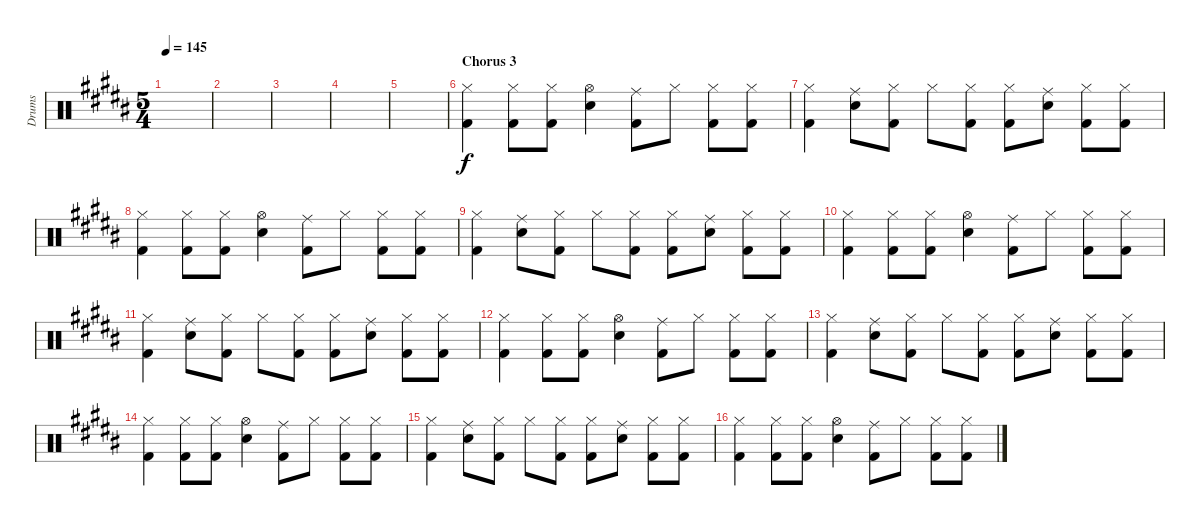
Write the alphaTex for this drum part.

\track ("Drums" "Drums") {instrument percussion}
\staff {score}
\articulation defaults
\ts (5 4)
\tempo 145
\clef neutral
\ks b
|
|
|
|
|
\section ("" "Chorus 3")
("Hi-Hat (closed)" "Kick (hit) 2").4{volume 12 balance 0} ("Hi-Hat (closed)" "Kick (hit) 2").8 ("Hi-Hat (closed)" "Kick (hit) 2").8 ("Hi-Hat (open)" "Electric Snare (hit)").4 ("Ride (middle)" "Kick (hit) 2").8 "Hi-Hat (closed)".8 ("Hi-Hat (closed)" "Kick (hit) 2").8 ("Hi-Hat (closed)" "Kick (hit) 2").8 |
("Hi-Hat (closed)" "Kick (hit) 2").4 ("Ride (middle)" "Electric Snare (hit)").8 ("Hi-Hat (closed)" "Kick (hit) 2").8 "Hi-Hat (closed)".8 ("Hi-Hat (closed)" "Kick (hit) 2").8 ("Hi-Hat (closed)" "Kick (hit) 2").8 ("Ride (middle)" "Electric Snare (hit)").8 ("Hi-Hat (closed)" "Kick (hit) 2").8 ("Hi-Hat (closed)" "Kick (hit) 2").8 |
("Hi-Hat (closed)" "Kick (hit) 2").4 ("Hi-Hat (closed)" "Kick (hit) 2").8 ("Hi-Hat (closed)" "Kick (hit) 2").8 ("Hi-Hat (open)" "Electric Snare (hit)").4 ("Ride (middle)" "Kick (hit) 2").8 "Hi-Hat (closed)".8 ("Hi-Hat (closed)" "Kick (hit) 2").8 ("Hi-Hat (closed)" "Kick (hit) 2").8 |
("Hi-Hat (closed)" "Kick (hit) 2").4 ("Ride (middle)" "Electric Snare (hit)").8 ("Hi-Hat (closed)" "Kick (hit) 2").8 "Hi-Hat (closed)".8 ("Hi-Hat (closed)" "Kick (hit) 2").8 ("Hi-Hat (closed)" "Kick (hit) 2").8 ("Ride (middle)" "Electric Snare (hit)").8 ("Hi-Hat (closed)" "Kick (hit) 2").8 ("Hi-Hat (closed)" "Kick (hit) 2").8 |
("Hi-Hat (closed)" "Kick (hit) 2").4 ("Hi-Hat (closed)" "Kick (hit) 2").8 ("Hi-Hat (closed)" "Kick (hit) 2").8 ("Hi-Hat (open)" "Electric Snare (hit)").4 ("Ride (middle)" "Kick (hit) 2").8 "Hi-Hat (closed)".8 ("Hi-Hat (closed)" "Kick (hit) 2").8 ("Hi-Hat (closed)" "Kick (hit) 2").8 |
("Hi-Hat (closed)" "Kick (hit) 2").4 ("Ride (middle)" "Electric Snare (hit)").8 ("Hi-Hat (closed)" "Kick (hit) 2").8 "Hi-Hat (closed)".8 ("Hi-Hat (closed)" "Kick (hit) 2").8 ("Hi-Hat (closed)" "Kick (hit) 2").8 ("Ride (middle)" "Electric Snare (hit)").8 ("Hi-Hat (closed)" "Kick (hit) 2").8 ("Hi-Hat (closed)" "Kick (hit) 2").8 |
("Hi-Hat (closed)" "Kick (hit) 2").4 ("Hi-Hat (closed)" "Kick (hit) 2").8 ("Hi-Hat (closed)" "Kick (hit) 2").8 ("Hi-Hat (open)" "Electric Snare (hit)").4 ("Ride (middle)" "Kick (hit) 2").8 "Hi-Hat (closed)".8 ("Hi-Hat (closed)" "Kick (hit) 2").8 ("Hi-Hat (closed)" "Kick (hit) 2").8 |
("Hi-Hat (closed)" "Kick (hit) 2").4 ("Ride (middle)" "Electric Snare (hit)").8 ("Hi-Hat (closed)" "Kick (hit) 2").8 "Hi-Hat (closed)".8 ("Hi-Hat (closed)" "Kick (hit) 2").8 ("Hi-Hat (closed)" "Kick (hit) 2").8 ("Ride (middle)" "Electric Snare (hit)").8 ("Hi-Hat (closed)" "Kick (hit) 2").8 ("Hi-Hat (closed)" "Kick (hit) 2").8 |
("Hi-Hat (closed)" "Kick (hit) 2").4 ("Hi-Hat (closed)" "Kick (hit) 2").8 ("Hi-Hat (closed)" "Kick (hit) 2").8 ("Hi-Hat (open)" "Electric Snare (hit)").4 ("Ride (middle)" "Kick (hit) 2").8 "Hi-Hat (closed)".8 ("Hi-Hat (closed)" "Kick (hit) 2").8 ("Hi-Hat (closed)" "Kick (hit) 2").8 |
("Hi-Hat (closed)" "Kick (hit) 2").4 ("Ride (middle)" "Electric Snare (hit)").8 ("Hi-Hat (closed)" "Kick (hit) 2").8 "Hi-Hat (closed)".8 ("Hi-Hat (closed)" "Kick (hit) 2").8 ("Hi-Hat (closed)" "Kick (hit) 2").8 ("Ride (middle)" "Electric Snare (hit)").8 ("Hi-Hat (closed)" "Kick (hit) 2").8 ("Hi-Hat (closed)" "Kick (hit) 2").8 |
("Hi-Hat (closed)" "Kick (hit) 2").4 ("Hi-Hat (closed)" "Kick (hit) 2").8 ("Hi-Hat (closed)" "Kick (hit) 2").8 ("Hi-Hat (open)" "Electric Snare (hit)").4 ("Ride (middle)" "Kick (hit) 2").8 "Hi-Hat (closed)".8 ("Hi-Hat (closed)" "Kick (hit) 2").8 ("Hi-Hat (closed)" "Kick (hit) 2").8
